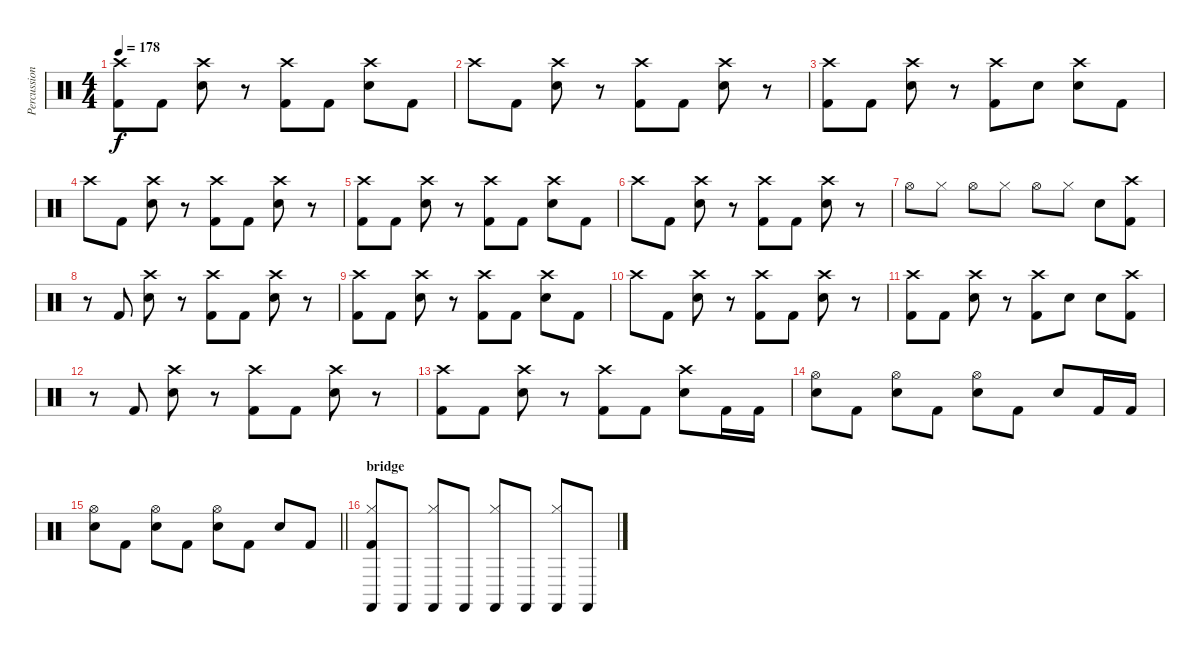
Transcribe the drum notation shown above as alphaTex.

\track ("Percussion" "Percussion") {instrument percussion}
\staff {score}
\articulation defaults
\ts (4 4)
\tempo 178
\clef neutral
\ks c
("Crash high (hit)" "Kick (hit) 2").8{dy f} "Kick (hit) 2".8 ("Crash high (hit)" "Electric Snare (hit)").8 r.8 ("Crash high (hit)" "Kick (hit) 2").8 "Kick (hit) 2".8 ("Crash high (hit)" "Electric Snare (hit)").8 "Kick (hit) 2".8 |
"Crash high (hit)".8 "Kick (hit) 2".8 ("Crash high (hit)" "Electric Snare (hit)").8 r.8 ("Crash high (hit)" "Kick (hit) 2").8 "Kick (hit) 2".8 ("Crash high (hit)" "Electric Snare (hit)").8 r.8 |
("Crash high (hit)" "Kick (hit) 2").8 "Kick (hit) 2".8 ("Crash high (hit)" "Electric Snare (hit)").8 r.8 ("Crash high (hit)" "Kick (hit) 2").8 "Electric Snare (hit)".8 ("Crash high (hit)" "Electric Snare (hit)").8 "Kick (hit) 2".8 |
"Crash high (hit)".8 "Kick (hit) 2".8 ("Crash high (hit)" "Electric Snare (hit)").8 r.8 ("Crash high (hit)" "Kick (hit) 2").8 "Kick (hit) 2".8 ("Crash high (hit)" "Electric Snare (hit)").8 r.8 |
("Crash high (hit)" "Kick (hit) 2").8 "Kick (hit) 2".8 ("Crash high (hit)" "Electric Snare (hit)").8 r.8 ("Crash high (hit)" "Kick (hit) 2").8 "Kick (hit) 2".8 ("Crash high (hit)" "Electric Snare (hit)").8 "Kick (hit) 2".8 |
"Crash high (hit)".8 "Kick (hit) 2".8 ("Crash high (hit)" "Electric Snare (hit)").8 r.8 ("Crash high (hit)" "Kick (hit) 2").8 "Kick (hit) 2".8 ("Crash high (hit)" "Electric Snare (hit)").8 r.8 |
"Hi-Hat (open)".8 "Hi-Hat (closed)".8 "Hi-Hat (open)".8 "Hi-Hat (closed)".8 "Hi-Hat (open)".8 "Hi-Hat (closed)".8 "Electric Snare (hit)".8 ("Crash high (hit)" "Kick (hit) 2").8 |
r.8 "Kick (hit) 2".8 ("Crash high (hit)" "Electric Snare (hit)").8 r.8 ("Crash high (hit)" "Kick (hit) 2").8 "Kick (hit) 2".8 ("Crash high (hit)" "Electric Snare (hit)").8 r.8 |
("Crash high (hit)" "Kick (hit) 2").8 "Kick (hit) 2".8 ("Crash high (hit)" "Electric Snare (hit)").8 r.8 ("Crash high (hit)" "Kick (hit) 2").8 "Kick (hit) 2".8 ("Crash high (hit)" "Electric Snare (hit)").8 "Kick (hit) 2".8 |
"Crash high (hit)".8 "Kick (hit) 2".8 ("Crash high (hit)" "Electric Snare (hit)").8 r.8 ("Crash high (hit)" "Kick (hit) 2").8 "Kick (hit) 2".8 ("Crash high (hit)" "Electric Snare (hit)").8 r.8 |
("Crash high (hit)" "Kick (hit) 2").8 "Kick (hit) 2".8 ("Crash high (hit)" "Electric Snare (hit)").8 r.8 ("Crash high (hit)" "Kick (hit) 2").8 "Electric Snare (hit)".8 "Electric Snare (hit)".8 ("Crash high (hit)" "Kick (hit) 2").8 |
r.8 "Kick (hit) 2".8 ("Crash high (hit)" "Electric Snare (hit)").8 r.8 ("Crash high (hit)" "Kick (hit) 2").8 "Kick (hit) 2".8 ("Crash high (hit)" "Electric Snare (hit)").8 r.8 |
("Crash high (hit)" "Kick (hit) 2").8 "Kick (hit) 2".8 ("Crash high (hit)" "Electric Snare (hit)").8 r.8 ("Crash high (hit)" "Kick (hit) 2").8 "Kick (hit) 2".8 ("Crash high (hit)" "Electric Snare (hit)").8 "Kick (hit) 2".16 "Kick (hit) 2".16 |
("Hi-Hat (open)" "Electric Snare (hit)").8 "Kick (hit) 2".8 ("Hi-Hat (open)" "Electric Snare (hit)").8 "Kick (hit) 2".8 ("Hi-Hat (open)" "Electric Snare (hit)").8 "Kick (hit) 2".8 "Electric Snare (hit)".8 "Kick (hit) 2".16 "Kick (hit) 2".16 |
\barLineRight lightlight
("Hi-Hat (open)" "Electric Snare (hit)").8 "Kick (hit) 2".8 ("Hi-Hat (open)" "Electric Snare (hit)").8 "Kick (hit) 2".8 ("Hi-Hat (open)" "Electric Snare (hit)").8 "Kick (hit) 2".8 "Electric Snare (hit)".8 "Kick (hit) 2".8 |
\section ("" "bridge")
("Hi-Hat (closed)" "Castanets (hit)" "Kick (hit) 2").8 "Castanets (hit)".8 ("Hi-Hat (closed)" "Castanets (hit)").8 "Castanets (hit)".8 ("Hi-Hat (closed)" "Castanets (hit)").8 "Castanets (hit)".8 ("Hi-Hat (closed)" "Castanets (hit)").8 "Castanets (hit)".8
